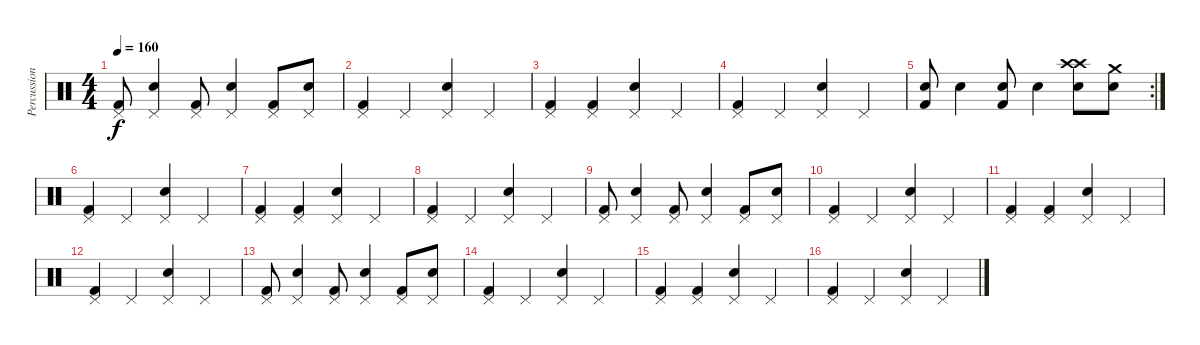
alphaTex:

\track ("Percussion" "Percussion") {instrument percussion}
\staff {score}
\articulation defaults
\ts (4 4)
\tempo 160
\clef neutral
\ks c
("Kick (hit) 2" "Pedal Hi-Hat (hit)").8{dy f} ("Snare (hit) 2" "Pedal Hi-Hat (hit)").4 ("Kick (hit) 2" "Pedal Hi-Hat (hit)").8 ("Snare (hit) 2" "Pedal Hi-Hat (hit)").4 ("Kick (hit) 2" "Pedal Hi-Hat (hit)").8 ("Snare (hit) 2" "Pedal Hi-Hat (hit)").8 |
("Kick (hit) 2" "Pedal Hi-Hat (hit)").4 "Pedal Hi-Hat (hit)".4 ("Snare (hit) 2" "Pedal Hi-Hat (hit)").4 "Pedal Hi-Hat (hit)".4 |
("Kick (hit) 2" "Pedal Hi-Hat (hit)").4 ("Kick (hit) 2" "Pedal Hi-Hat (hit)").4 ("Snare (hit) 2" "Pedal Hi-Hat (hit)").4 "Pedal Hi-Hat (hit)".4 |
("Kick (hit) 2" "Pedal Hi-Hat (hit)").4 "Pedal Hi-Hat (hit)".4 ("Snare (hit) 2" "Pedal Hi-Hat (hit)").4 "Pedal Hi-Hat (hit)".4 |
\rc 2
("Snare (hit) 2" "Kick (hit) 2").8 "Snare (hit) 2".4 ("Snare (hit) 2" "Kick (hit) 2").8 "Snare (hit) 2".4 ("Crash high (hit)" "Snare (hit) 2" "Crash high (hit)").8 ("Snare (hit) 2" "Crash medium (hit)").8 |
("Kick (hit) 2" "Pedal Hi-Hat (hit)").4 "Pedal Hi-Hat (hit)".4 ("Snare (hit) 2" "Pedal Hi-Hat (hit)").4 "Pedal Hi-Hat (hit)".4 |
("Kick (hit) 2" "Pedal Hi-Hat (hit)").4 ("Kick (hit) 2" "Pedal Hi-Hat (hit)").4 ("Snare (hit) 2" "Pedal Hi-Hat (hit)").4 "Pedal Hi-Hat (hit)".4 |
("Kick (hit) 2" "Pedal Hi-Hat (hit)").4 "Pedal Hi-Hat (hit)".4 ("Snare (hit) 2" "Pedal Hi-Hat (hit)").4 "Pedal Hi-Hat (hit)".4 |
("Kick (hit) 2" "Pedal Hi-Hat (hit)").8 ("Snare (hit) 2" "Pedal Hi-Hat (hit)").4 ("Kick (hit) 2" "Pedal Hi-Hat (hit)").8 ("Snare (hit) 2" "Pedal Hi-Hat (hit)").4 ("Kick (hit) 2" "Pedal Hi-Hat (hit)").8 ("Snare (hit) 2" "Pedal Hi-Hat (hit)").8 |
("Kick (hit) 2" "Pedal Hi-Hat (hit)").4 "Pedal Hi-Hat (hit)".4 ("Snare (hit) 2" "Pedal Hi-Hat (hit)").4 "Pedal Hi-Hat (hit)".4 |
("Kick (hit) 2" "Pedal Hi-Hat (hit)").4 ("Kick (hit) 2" "Pedal Hi-Hat (hit)").4 ("Snare (hit) 2" "Pedal Hi-Hat (hit)").4 "Pedal Hi-Hat (hit)".4 |
("Kick (hit) 2" "Pedal Hi-Hat (hit)").4 "Pedal Hi-Hat (hit)".4 ("Snare (hit) 2" "Pedal Hi-Hat (hit)").4 "Pedal Hi-Hat (hit)".4 |
("Kick (hit) 2" "Pedal Hi-Hat (hit)").8 ("Snare (hit) 2" "Pedal Hi-Hat (hit)").4 ("Kick (hit) 2" "Pedal Hi-Hat (hit)").8 ("Snare (hit) 2" "Pedal Hi-Hat (hit)").4 ("Kick (hit) 2" "Pedal Hi-Hat (hit)").8 ("Snare (hit) 2" "Pedal Hi-Hat (hit)").8 |
("Kick (hit) 2" "Pedal Hi-Hat (hit)").4 "Pedal Hi-Hat (hit)".4 ("Snare (hit) 2" "Pedal Hi-Hat (hit)").4 "Pedal Hi-Hat (hit)".4 |
("Kick (hit) 2" "Pedal Hi-Hat (hit)").4 ("Kick (hit) 2" "Pedal Hi-Hat (hit)").4 ("Snare (hit) 2" "Pedal Hi-Hat (hit)").4 "Pedal Hi-Hat (hit)".4 |
("Kick (hit) 2" "Pedal Hi-Hat (hit)").4 "Pedal Hi-Hat (hit)".4 ("Snare (hit) 2" "Pedal Hi-Hat (hit)").4 "Pedal Hi-Hat (hit)".4
